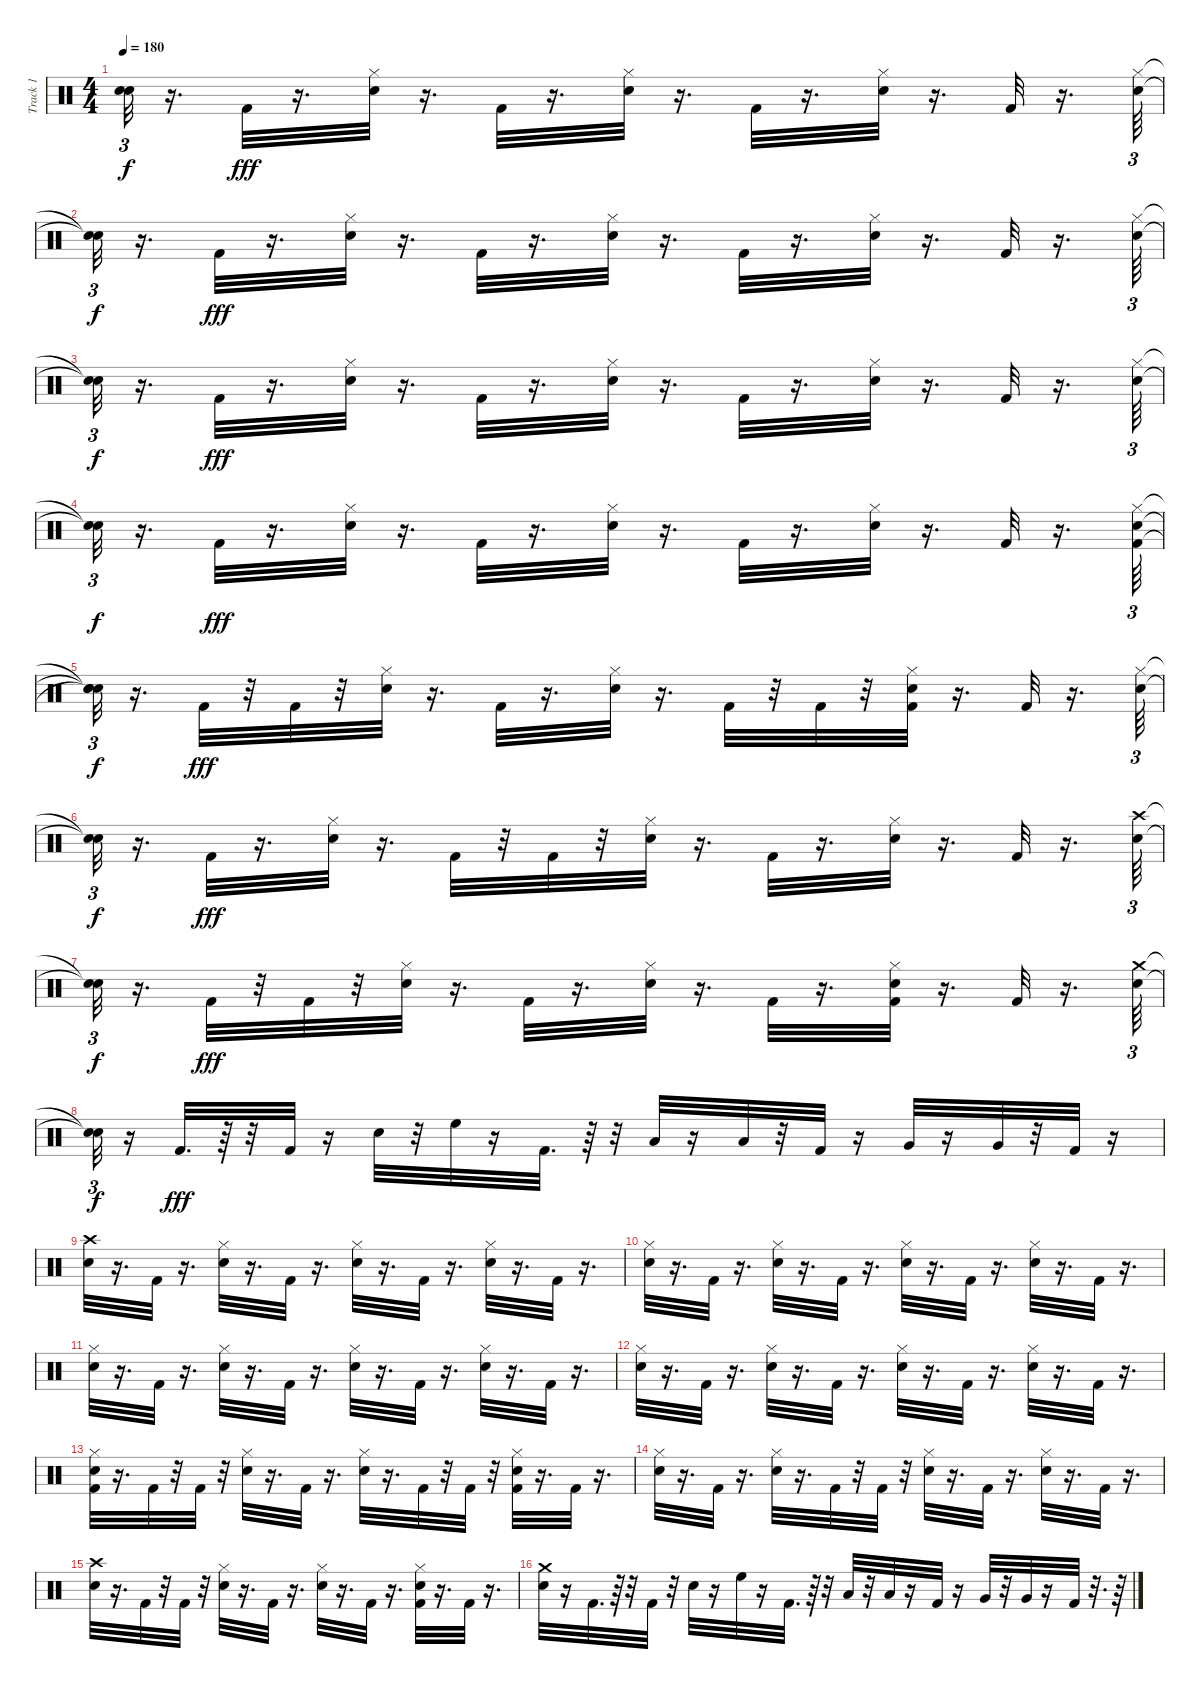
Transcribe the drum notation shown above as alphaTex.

\track ("Track 1" "Track 1") {mute instrument percussion}
\staff {score}
\articulation defaults
\ts (4 4)
\tempo 180
\clef neutral
\ks c
("Snare (hit)"{t} "Snare (hit)"{t}).32{tu (3 2) dy f} r.16{d} "Kick (hit) 2".32{dy fff} r.16{d} ("Snare (hit) 2" "Hi-Hat (closed)").32 r.16{d} "Kick (hit) 2".32 r.16{d} ("Hi-Hat (closed)" "Snare (hit) 2").32 r.16{d} "Kick (hit) 2".32 r.16{d} ("Hi-Hat (closed)" "Snare (hit) 2").32 r.16{d} "Kick (hit) 2".32 r.16{d} ("Snare (hit) 2" "Hi-Hat (closed)").64{tu (3 2)} |
("Snare (hit)"{t} "Snare (hit)"{t}).32{tu (3 2) dy f} r.16{d} "Kick (hit) 2".32{dy fff} r.16{d} ("Snare (hit) 2" "Hi-Hat (closed)").32 r.16{d} "Kick (hit) 2".32 r.16{d} ("Snare (hit) 2" "Hi-Hat (closed)").32 r.16{d} "Kick (hit) 2".32 r.16{d} ("Hi-Hat (closed)" "Snare (hit) 2").32 r.16{d} "Kick (hit) 2".32 r.16{d} ("Hi-Hat (closed)" "Snare (hit) 2").64{tu (3 2)} |
("Snare (hit)"{t} "Snare (hit)"{t}).32{tu (3 2) dy f} r.16{d} "Kick (hit) 2".32{dy fff} r.16{d} ("Snare (hit) 2" "Hi-Hat (closed)").32 r.16{d} "Kick (hit) 2".32 r.16{d} ("Hi-Hat (closed)" "Snare (hit) 2").32 r.16{d} "Kick (hit) 2".32 r.16{d} ("Hi-Hat (closed)" "Snare (hit) 2").32 r.16{d} "Kick (hit) 2".32 r.16{d} ("Snare (hit) 2" "Hi-Hat (closed)").64{tu (3 2)} |
("Snare (hit)"{t} "Snare (hit)"{t}).32{tu (3 2) dy f} r.16{d} "Kick (hit) 2".32{dy fff} r.16{d} ("Snare (hit) 2" "Hi-Hat (closed)").32 r.16{d} "Kick (hit) 2".32 r.16{d} ("Snare (hit) 2" "Hi-Hat (closed)").32 r.16{d} "Kick (hit) 2".32 r.16{d} ("Hi-Hat (closed)" "Snare (hit) 2").32 r.16{d} "Kick (hit) 2".32 r.16{d} ("Kick (hit) 2" "Hi-Hat (closed)" "Snare (hit) 2").64{tu (3 2)} |
("Snare (hit)"{t} "Snare (hit)"{t} "Snare (hit)"{t}).32{tu (3 2) dy f} r.16{d} "Kick (hit) 2".32{dy fff} r.32 "Kick (hit) 2".32 r.32 ("Snare (hit) 2" "Hi-Hat (closed)").32 r.16{d} "Kick (hit) 2".32 r.16{d} ("Hi-Hat (closed)" "Snare (hit) 2").32 r.16{d} "Kick (hit) 2".32 r.32 "Kick (hit) 2".32 r.32 ("Hi-Hat (closed)" "Snare (hit) 2" "Kick (hit) 2").32 r.16{d} "Kick (hit) 2".32 r.16{d} ("Snare (hit) 2" "Hi-Hat (closed)").64{tu (3 2)} |
("Snare (hit)"{t} "Snare (hit)"{t}).32{tu (3 2) dy f} r.16{d} "Kick (hit) 2".32{dy fff} r.16{d} ("Snare (hit) 2" "Hi-Hat (closed)").32 r.16{d} "Kick (hit) 2".32 r.32 "Kick (hit) 2".32 r.32 ("Hi-Hat (closed)" "Snare (hit) 2").32 r.16{d} "Kick (hit) 2".32 r.16{d} ("Snare (hit) 2" "Hi-Hat (closed)").32 r.16{d} "Kick (hit) 2".32 r.16{d} ("Crash high (hit)" "Snare (hit) 2").64{tu (3 2)} |
("Snare (hit)"{t} "Snare (hit)"{t}).32{tu (3 2) dy f} r.16{d} "Kick (hit) 2".32{dy fff} r.32 "Kick (hit) 2".32 r.32 ("Snare (hit) 2" "Hi-Hat (closed)").32 r.16{d} "Kick (hit) 2".32 r.16{d} ("Hi-Hat (closed)" "Snare (hit) 2").32 r.16{d} "Kick (hit) 2".32 r.16{d} ("Hi-Hat (closed)" "Snare (hit) 2" "Kick (hit) 2").32 r.16{d} "Kick (hit) 2".32 r.16{d} ("Crash medium (hit)" "Electric Snare (hit)").64{tu (3 2)} |
("Snare (hit)"{t} "Snare (hit)"{t}).32{tu (3 2) dy f} r.16 "Kick (hit) 2".32{d dy fff} r.64 r.32 "Kick (hit) 2".32 r.16 "Electric Snare (hit)".32 r.32 "High Floor Tom (hit)".32 r.16 "Kick (hit) 2".32{d} r.64 r.32 "Low Tom (hit)".32 r.16 "Low Tom (hit)".32 r.32 "Kick (hit) 2".32 r.16 "Very Low Tom (hit)".32 r.16 "Very Low Tom (hit)".32 r.32 "Kick (hit) 2".32 r.16 |
("Crash high (hit)" "Snare (hit) 2").32 r.16{d} "Kick (hit) 2".32 r.16{d} ("Snare (hit) 2" "Hi-Hat (closed)").32 r.16{d} "Kick (hit) 2".32 r.16{d} ("Hi-Hat (closed)" "Snare (hit) 2").32 r.16{d} "Kick (hit) 2".32 r.16{d} ("Hi-Hat (closed)" "Snare (hit) 2").32 r.16{d} "Kick (hit) 2".32 r.16{d} |
("Snare (hit) 2" "Hi-Hat (closed)").32 r.16{d} "Kick (hit) 2".32 r.16{d} ("Snare (hit) 2" "Hi-Hat (closed)").32 r.16{d} "Kick (hit) 2".32 r.16{d} ("Snare (hit) 2" "Hi-Hat (closed)").32 r.16{d} "Kick (hit) 2".32 r.16{d} ("Hi-Hat (closed)" "Snare (hit) 2").32 r.16{d} "Kick (hit) 2".32 r.16{d} |
("Hi-Hat (closed)" "Snare (hit) 2").32 r.16{d} "Kick (hit) 2".32 r.16{d} ("Snare (hit) 2" "Hi-Hat (closed)").32 r.16{d} "Kick (hit) 2".32 r.16{d} ("Hi-Hat (closed)" "Snare (hit) 2").32 r.16{d} "Kick (hit) 2".32 r.16{d} ("Hi-Hat (closed)" "Snare (hit) 2").32 r.16{d} "Kick (hit) 2".32 r.16{d} |
("Snare (hit) 2" "Hi-Hat (closed)").32 r.16{d} "Kick (hit) 2".32 r.16{d} ("Snare (hit) 2" "Hi-Hat (closed)").32 r.16{d} "Kick (hit) 2".32 r.16{d} ("Snare (hit) 2" "Hi-Hat (closed)").32 r.16{d} "Kick (hit) 2".32 r.16{d} ("Hi-Hat (closed)" "Snare (hit) 2").32 r.16{d} "Kick (hit) 2".32 r.16{d} |
("Kick (hit) 2" "Hi-Hat (closed)" "Snare (hit) 2").32 r.16{d} "Kick (hit) 2".32 r.32 "Kick (hit) 2".32 r.32 ("Snare (hit) 2" "Hi-Hat (closed)").32 r.16{d} "Kick (hit) 2".32 r.16{d} ("Hi-Hat (closed)" "Snare (hit) 2").32 r.16{d} "Kick (hit) 2".32 r.32 "Kick (hit) 2".32 r.32 ("Hi-Hat (closed)" "Snare (hit) 2" "Kick (hit) 2").32 r.16{d} "Kick (hit) 2".32 r.16{d} |
("Snare (hit) 2" "Hi-Hat (closed)").32 r.16{d} "Kick (hit) 2".32 r.16{d} ("Snare (hit) 2" "Hi-Hat (closed)").32 r.16{d} "Kick (hit) 2".32 r.32 "Kick (hit) 2".32 r.32 ("Hi-Hat (closed)" "Snare (hit) 2").32 r.16{d} "Kick (hit) 2".32 r.16{d} ("Snare (hit) 2" "Hi-Hat (closed)").32 r.16{d} "Kick (hit) 2".32 r.16{d} |
("Crash high (hit)" "Snare (hit) 2").32 r.16{d} "Kick (hit) 2".32 r.32 "Kick (hit) 2".32 r.32 ("Snare (hit) 2" "Hi-Hat (closed)").32 r.16{d} "Kick (hit) 2".32 r.16{d} ("Hi-Hat (closed)" "Snare (hit) 2").32 r.16{d} "Kick (hit) 2".32 r.16{d} ("Hi-Hat (closed)" "Snare (hit) 2" "Kick (hit) 2").32 r.16{d} "Kick (hit) 2".32 r.16{d} |
("Crash medium (hit)" "Electric Snare (hit)").32 r.16 "Kick (hit) 2".32{d} r.64 r.32 "Kick (hit) 2".32 r.32 "Electric Snare (hit)".32 r.16 "High Floor Tom (hit)".32 r.16 "Kick (hit) 2".32{d} r.64 r.32 "Low Tom (hit)".32 r.32 "Low Tom (hit)".32 r.16 "Kick (hit) 2".32 r.16 "Very Low Tom (hit)".32 r.32 "Very Low Tom (hit)".32 r.16 "Kick (hit) 2".32 r.32{d} r.64
